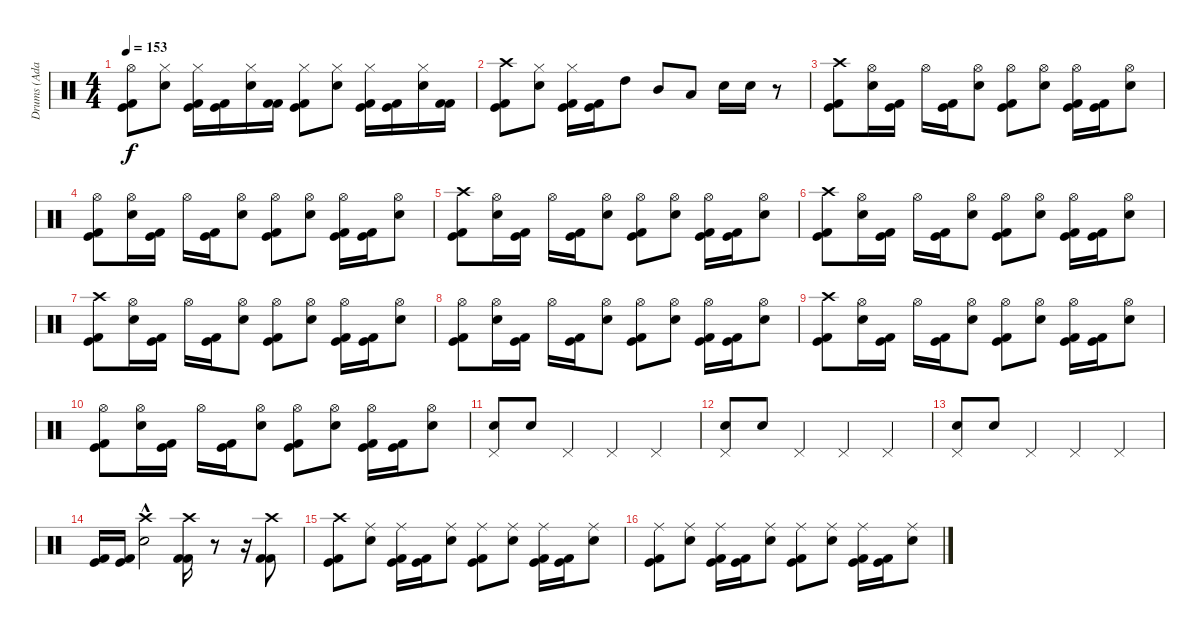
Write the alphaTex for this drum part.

\track ("Drums (Adam)" "Drums (Ada") {instrument percussion}
\staff {score}
\articulation defaults
\ts (4 4)
\tempo 153
\clef neutral
\ks c
("Hi-Hat (open)" "Kick (hit)" "Kick (hit) 2").8{dy f} ("Hi-Hat (closed)" "Snare (hit) 2").8 ("Hi-Hat (closed)" "Kick (hit)" "Kick (hit) 2").16 ("Kick (hit)" "Kick (hit) 2").16 ("Hi-Hat (closed)" "Snare (hit) 2").16 ("Kick (hit) 2" "Kick (hit) 2").16 ("Hi-Hat (closed)" "Kick (hit)" "Kick (hit) 2").8 ("Hi-Hat (closed)" "Snare (hit) 2").8 ("Hi-Hat (closed)" "Kick (hit)" "Kick (hit) 2").16 ("Kick (hit)" "Kick (hit) 2").16 ("Hi-Hat (closed)" "Snare (hit) 2").16 ("Kick (hit) 2" "Kick (hit) 2").16 |
("Crash high (hit)" "Kick (hit)" "Kick (hit) 2").8 ("Hi-Hat (closed)" "Snare (hit) 2").8 ("Hi-Hat (closed)" "Kick (hit)" "Kick (hit) 2").16 ("Kick (hit)" "Kick (hit) 2").16 "High Tom (hit)".8 "Mid Tom (hit)".8 "Low Tom (hit)".8 "Snare (hit) 2".16 "Snare (hit) 2".16 r.8 |
("Crash high (hit)" "Kick (hit)" "Kick (hit) 2").8 ("Hi-Hat (open)" "Snare (hit) 2").16 ("Kick (hit)" "Kick (hit) 2").16 "Hi-Hat (open)".16 ("Kick (hit)" "Kick (hit) 2").16 ("Hi-Hat (open)" "Snare (hit) 2").8 ("Hi-Hat (open)" "Kick (hit)" "Kick (hit) 2").8 ("Hi-Hat (open)" "Snare (hit) 2").8 ("Hi-Hat (open)" "Kick (hit)" "Kick (hit) 2").16 ("Kick (hit)" "Kick (hit) 2").16 ("Hi-Hat (open)" "Snare (hit) 2").8 |
("Hi-Hat (open)" "Kick (hit)" "Kick (hit) 2").8 ("Hi-Hat (open)" "Snare (hit) 2").16 ("Kick (hit)" "Kick (hit) 2").16 "Hi-Hat (open)".16 ("Kick (hit)" "Kick (hit) 2").16 ("Hi-Hat (open)" "Snare (hit) 2").8 ("Hi-Hat (open)" "Kick (hit)" "Kick (hit) 2").8 ("Hi-Hat (open)" "Snare (hit) 2").8 ("Hi-Hat (open)" "Kick (hit)" "Kick (hit) 2").16 ("Kick (hit)" "Kick (hit) 2").16 ("Hi-Hat (open)" "Snare (hit) 2").8 |
("Crash high (hit)" "Kick (hit)" "Kick (hit) 2").8 ("Hi-Hat (open)" "Snare (hit) 2").16 ("Kick (hit)" "Kick (hit) 2").16 "Hi-Hat (open)".16 ("Kick (hit)" "Kick (hit) 2").16 ("Hi-Hat (open)" "Snare (hit) 2").8 ("Hi-Hat (open)" "Kick (hit)" "Kick (hit) 2").8 ("Hi-Hat (open)" "Snare (hit) 2").8 ("Hi-Hat (open)" "Kick (hit)" "Kick (hit) 2").16 ("Kick (hit)" "Kick (hit) 2").16 ("Hi-Hat (open)" "Snare (hit) 2").8 |
("Crash high (hit)" "Kick (hit)" "Kick (hit) 2").8 ("Hi-Hat (open)" "Snare (hit) 2").16 ("Kick (hit)" "Kick (hit) 2").16 "Hi-Hat (open)".16 ("Kick (hit)" "Kick (hit) 2").16 ("Hi-Hat (open)" "Snare (hit) 2").8 ("Hi-Hat (open)" "Kick (hit)" "Kick (hit) 2").8 ("Hi-Hat (open)" "Snare (hit) 2").8 ("Hi-Hat (open)" "Kick (hit)" "Kick (hit) 2").16 ("Kick (hit)" "Kick (hit) 2").16 ("Hi-Hat (open)" "Snare (hit) 2").8 |
("Crash high (hit)" "Kick (hit)" "Kick (hit) 2").8 ("Hi-Hat (open)" "Snare (hit) 2").16 ("Kick (hit)" "Kick (hit) 2").16 "Hi-Hat (open)".16 ("Kick (hit)" "Kick (hit) 2").16 ("Hi-Hat (open)" "Snare (hit) 2").8 ("Hi-Hat (open)" "Kick (hit)" "Kick (hit) 2").8 ("Hi-Hat (open)" "Snare (hit) 2").8 ("Hi-Hat (open)" "Kick (hit)" "Kick (hit) 2").16 ("Kick (hit)" "Kick (hit) 2").16 ("Hi-Hat (open)" "Snare (hit) 2").8 |
("Hi-Hat (open)" "Kick (hit)" "Kick (hit) 2").8 ("Hi-Hat (open)" "Snare (hit) 2").16 ("Kick (hit)" "Kick (hit) 2").16 "Hi-Hat (open)".16 ("Kick (hit)" "Kick (hit) 2").16 ("Hi-Hat (open)" "Snare (hit) 2").8 ("Hi-Hat (open)" "Kick (hit)" "Kick (hit) 2").8 ("Hi-Hat (open)" "Snare (hit) 2").8 ("Hi-Hat (open)" "Kick (hit)" "Kick (hit) 2").16 ("Kick (hit)" "Kick (hit) 2").16 ("Hi-Hat (open)" "Snare (hit) 2").8 |
("Crash high (hit)" "Kick (hit)" "Kick (hit) 2").8 ("Hi-Hat (open)" "Snare (hit) 2").16 ("Kick (hit)" "Kick (hit) 2").16 "Hi-Hat (open)".16 ("Kick (hit)" "Kick (hit) 2").16 ("Hi-Hat (open)" "Snare (hit) 2").8 ("Hi-Hat (open)" "Kick (hit)" "Kick (hit) 2").8 ("Hi-Hat (open)" "Snare (hit) 2").8 ("Hi-Hat (open)" "Kick (hit)" "Kick (hit) 2").16 ("Kick (hit)" "Kick (hit) 2").16 ("Hi-Hat (open)" "Snare (hit) 2").8 |
("Hi-Hat (open)" "Kick (hit)" "Kick (hit) 2").8 ("Hi-Hat (open)" "Snare (hit) 2").16 ("Kick (hit)" "Kick (hit) 2").16 "Hi-Hat (open)".16 ("Kick (hit)" "Kick (hit) 2").16 ("Hi-Hat (open)" "Snare (hit) 2").8 ("Hi-Hat (open)" "Kick (hit)" "Kick (hit) 2").8 ("Hi-Hat (open)" "Snare (hit) 2").8 ("Hi-Hat (open)" "Kick (hit)" "Kick (hit) 2").16 ("Kick (hit)" "Kick (hit) 2").16 ("Hi-Hat (open)" "Snare (hit) 2").8 |
("Pedal Hi-Hat (hit)" "Snare (hit) 2").8 "Snare (hit) 2".8 "Pedal Hi-Hat (hit)".4 "Pedal Hi-Hat (hit)".4 "Pedal Hi-Hat (hit)".4 |
("Pedal Hi-Hat (hit)" "Snare (hit) 2").8 "Snare (hit) 2".8 "Pedal Hi-Hat (hit)".4 "Pedal Hi-Hat (hit)".4 "Pedal Hi-Hat (hit)".4 |
("Pedal Hi-Hat (hit)" "Snare (hit) 2").8 "Snare (hit) 2".8 "Pedal Hi-Hat (hit)".4 "Pedal Hi-Hat (hit)".4 "Pedal Hi-Hat (hit)".4 |
("Kick (hit)" "Kick (hit) 2").16 ("Kick (hit)" "Kick (hit) 2").16 ("Crash high (hit)"{hac} "Snare (hit) 2").2 ("Crash high (hit)" "Kick (hit) 2" "Kick (hit) 2").16 r.8 r.16 ("Crash high (hit)" "Kick (hit) 2" "Kick (hit) 2").8 |
("Crash high (hit)" "Kick (hit)" "Kick (hit) 2").8 ("Ride (middle)" "Snare (hit) 2").8 ("Ride (middle)" "Kick (hit)" "Kick (hit) 2").16 ("Kick (hit)" "Kick (hit) 2").16 ("Ride (middle)" "Snare (hit) 2").8 ("Ride (middle)" "Kick (hit)" "Kick (hit) 2").8 ("Ride (middle)" "Snare (hit) 2").8 ("Ride (middle)" "Kick (hit)" "Kick (hit) 2").16 ("Kick (hit)" "Kick (hit) 2").16 ("Ride (middle)" "Snare (hit) 2").8 |
("Ride (middle)" "Kick (hit)" "Kick (hit) 2").8 ("Ride (middle)" "Snare (hit) 2").8 ("Ride (middle)" "Kick (hit)" "Kick (hit) 2").16 ("Kick (hit)" "Kick (hit) 2").16 ("Ride (middle)" "Snare (hit) 2").8 ("Ride (middle)" "Kick (hit)" "Kick (hit) 2").8 ("Ride (middle)" "Snare (hit) 2").8 ("Ride (middle)" "Kick (hit)" "Kick (hit) 2").16 ("Kick (hit)" "Kick (hit) 2").16 ("Ride (middle)" "Snare (hit) 2").8
